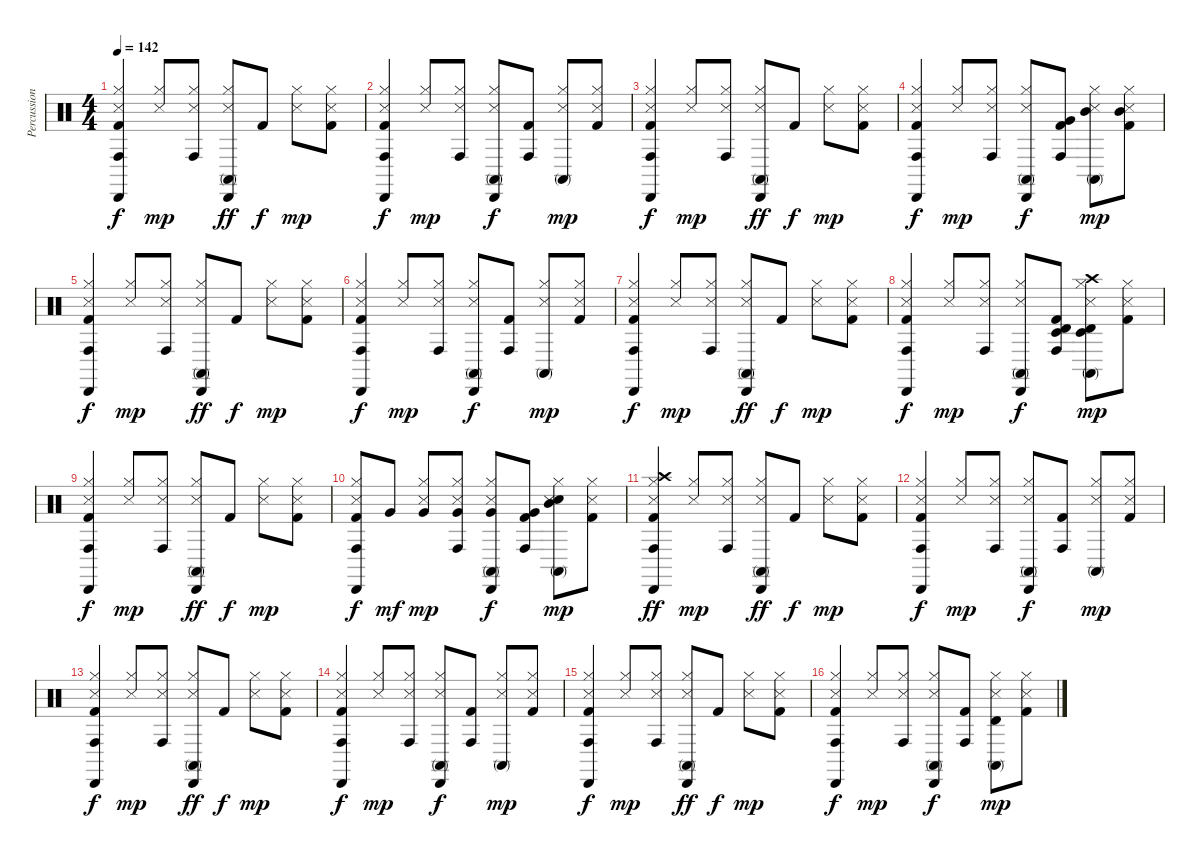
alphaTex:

\track ("Percussion Booster" "Percussion") {instrument percussion}
\staff {score}
\articulation defaults
\ts (4 4)
\tempo 142
\clef neutral
\ks c
("Conga high (hit)" "Cabasa (hit)" "Hi-Hat (closed)" "Snare (side stick) 3" "Kick (hit) 2").4{dy f} ("Hi-Hat (closed)" "Snare (side stick) 3").8{dy mp} ("Conga high (hit)" "Hi-Hat (closed)" "Snare (side stick) 3").8 ("Conga high (mute)" "Cabasa (hit)" "Hi-Hat (closed)" "Snare (side stick) 3").8{dy ff} "Kick (hit) 2".8{dy f} ("Hi-Hat (closed)" "Snare (side stick) 3").8{dy mp} ("Hi-Hat (closed)" "Snare (side stick) 3" "Kick (hit) 2").8 |
("Conga high (hit)" "Cabasa (hit)" "Hi-Hat (closed)" "Snare (side stick) 3" "Kick (hit) 2").4{dy f} ("Hi-Hat (closed)" "Snare (side stick) 3").8{dy mp} ("Conga high (hit)" "Hi-Hat (closed)" "Snare (side stick) 3").8 ("Conga high (mute)" "Cabasa (hit)" "Hi-Hat (closed)" "Snare (side stick) 3").8{dy f} ("Conga high (hit)" "Kick (hit) 2").8 ("Conga high (mute)" "Hi-Hat (closed)" "Snare (side stick) 3").8{dy mp} ("Hi-Hat (closed)" "Snare (side stick) 3" "Kick (hit) 2").8 |
("Conga high (hit)" "Cabasa (hit)" "Hi-Hat (closed)" "Snare (side stick) 3" "Kick (hit) 2").4{dy f} ("Hi-Hat (closed)" "Snare (side stick) 3").8{dy mp} ("Conga high (hit)" "Hi-Hat (closed)" "Snare (side stick) 3").8 ("Conga high (mute)" "Cabasa (hit)" "Hi-Hat (closed)" "Snare (side stick) 3").8{dy ff} "Kick (hit) 2".8{dy f} ("Hi-Hat (closed)" "Snare (side stick) 3").8{dy mp} ("Hi-Hat (closed)" "Snare (side stick) 3" "Kick (hit) 2").8 |
("Conga high (hit)" "Cabasa (hit)" "Hi-Hat (closed)" "Snare (side stick) 3" "Kick (hit) 2").4{dy f} ("Hi-Hat (closed)" "Snare (side stick) 3").8{dy mp} ("Conga high (hit)" "Hi-Hat (closed)" "Snare (side stick) 3").8 ("Conga high (mute)" "Cabasa (hit)" "Hi-Hat (closed)" "Snare (side stick) 3").8{dy f} ("Conga high (hit)" "Very Low Tom (hit)" "Kick (hit) 2").8 ("Conga high (mute)" "Mid Tom (hit)" "Hi-Hat (closed)" "Snare (side stick) 3").8{dy mp} ("Mid Tom (hit)" "Hi-Hat (closed)" "Snare (side stick) 3" "Kick (hit) 2").8 |
("Conga high (hit)" "Cabasa (hit)" "Hi-Hat (closed)" "Snare (side stick) 3" "Kick (hit) 2").4{dy f} ("Hi-Hat (closed)" "Snare (side stick) 3").8{dy mp} ("Conga high (hit)" "Hi-Hat (closed)" "Snare (side stick) 3").8 ("Conga high (mute)" "Cabasa (hit)" "Hi-Hat (closed)" "Snare (side stick) 3").8{dy ff} "Kick (hit) 2".8{dy f} ("Hi-Hat (closed)" "Snare (side stick) 3").8{dy mp} ("Hi-Hat (closed)" "Snare (side stick) 3" "Kick (hit) 2").8 |
("Conga high (hit)" "Cabasa (hit)" "Hi-Hat (closed)" "Snare (side stick) 3" "Kick (hit) 2").4{dy f} ("Hi-Hat (closed)" "Snare (side stick) 3").8{dy mp} ("Conga high (hit)" "Hi-Hat (closed)" "Snare (side stick) 3").8 ("Conga high (mute)" "Cabasa (hit)" "Hi-Hat (closed)" "Snare (side stick) 3").8{dy f} ("Conga high (hit)" "Kick (hit) 2").8 ("Conga high (mute)" "Hi-Hat (closed)" "Snare (side stick) 3").8{dy mp} ("Hi-Hat (closed)" "Snare (side stick) 3" "Kick (hit) 2").8 |
("Conga high (hit)" "Cabasa (hit)" "Hi-Hat (closed)" "Snare (side stick) 3" "Kick (hit) 2").4{dy f} ("Hi-Hat (closed)" "Snare (side stick) 3").8{dy mp} ("Conga high (hit)" "Hi-Hat (closed)" "Snare (side stick) 3").8 ("Conga high (mute)" "Cabasa (hit)" "Hi-Hat (closed)" "Snare (side stick) 3").8{dy ff} "Kick (hit) 2".8{dy f} ("Hi-Hat (closed)" "Snare (side stick) 3").8{dy mp} ("Hi-Hat (closed)" "Snare (side stick) 3" "Kick (hit) 2").8 |
("Conga high (hit)" "Cabasa (hit)" "Hi-Hat (closed)" "Snare (side stick) 3" "Kick (hit) 2").4{dy f} ("Hi-Hat (closed)" "Snare (side stick) 3").8{dy mp} ("Conga high (hit)" "Hi-Hat (closed)" "Snare (side stick) 3").8 ("Conga high (mute)" "Cabasa (hit)" "Hi-Hat (closed)" "Snare (side stick) 3").8{dy f} ("Timbale low (hit)" "Timbale high (hit)" "Conga high (hit)" "Kick (hit) 2").8 ("Timbale low (hit)" "Timbale high (hit)" "Conga high (mute)" "Crash high (hit)" "Hi-Hat (closed)" "Snare (side stick) 3").8{dy mp} ("Hi-Hat (closed)" "Snare (side stick) 3" "Kick (hit) 2").8 |
("Conga high (hit)" "Cabasa (hit)" "Hi-Hat (closed)" "Snare (side stick) 3" "Kick (hit) 2").4{dy f} ("Hi-Hat (closed)" "Snare (side stick) 3").8{dy mp} ("Conga high (hit)" "Hi-Hat (closed)" "Snare (side stick) 3").8 ("Conga high (mute)" "Cabasa (hit)" "Hi-Hat (closed)" "Snare (side stick) 3").8{dy ff} "Kick (hit) 2".8{dy f} ("Hi-Hat (closed)" "Snare (side stick) 3").8{dy mp} ("Hi-Hat (closed)" "Snare (side stick) 3" "Kick (hit) 2").8 |
("Conga high (hit)" "Cabasa (hit)" "Hi-Hat (closed)" "Snare (side stick) 3" "Kick (hit) 2").8{dy f} "Very Low Tom (hit)".8{dy mf} ("Very Low Tom (hit)" "Hi-Hat (closed)" "Snare (side stick) 3").8{dy mp} ("Conga high (hit)" "Very Low Tom (hit)" "Hi-Hat (closed)" "Snare (side stick) 3").8 ("Conga high (mute)" "Cabasa (hit)" "Very Low Tom (hit)" "Hi-Hat (closed)" "Snare (side stick) 3").8{dy f} ("Conga high (hit)" "Very Low Tom (hit)" "Kick (hit) 2").8 ("Conga high (mute)" "Mid Tom (hit)" "Hi-Hat (closed)" "Snare (hit) 2" "Snare (side stick) 3").8{dy mp} ("Hi-Hat (closed)" "Snare (side stick) 3" "Kick (hit) 2").8 |
("Conga high (hit)" "Cabasa (hit)" "Crash high (hit)" "Hi-Hat (closed)" "Snare (side stick) 3" "Kick (hit) 2").4{dy ff} ("Hi-Hat (closed)" "Snare (side stick) 3").8{dy mp} ("Conga high (hit)" "Hi-Hat (closed)" "Snare (side stick) 3").8 ("Conga high (mute)" "Cabasa (hit)" "Hi-Hat (closed)" "Snare (side stick) 3").8{dy ff} "Kick (hit) 2".8{dy f} ("Hi-Hat (closed)" "Snare (side stick) 3").8{dy mp} ("Hi-Hat (closed)" "Snare (side stick) 3" "Kick (hit) 2").8 |
("Conga high (hit)" "Cabasa (hit)" "Hi-Hat (closed)" "Snare (side stick) 3" "Kick (hit) 2").4{dy f} ("Hi-Hat (closed)" "Snare (side stick) 3").8{dy mp} ("Conga high (hit)" "Hi-Hat (closed)" "Snare (side stick) 3").8 ("Conga high (mute)" "Cabasa (hit)" "Hi-Hat (closed)" "Snare (side stick) 3").8{dy f} ("Conga high (hit)" "Kick (hit) 2").8 ("Conga high (mute)" "Hi-Hat (closed)" "Snare (side stick) 3").8{dy mp} ("Hi-Hat (closed)" "Snare (side stick) 3" "Kick (hit) 2").8 |
("Conga high (hit)" "Cabasa (hit)" "Hi-Hat (closed)" "Snare (side stick) 3" "Kick (hit) 2").4{dy f} ("Hi-Hat (closed)" "Snare (side stick) 3").8{dy mp} ("Conga high (hit)" "Hi-Hat (closed)" "Snare (side stick) 3").8 ("Conga high (mute)" "Cabasa (hit)" "Hi-Hat (closed)" "Snare (side stick) 3").8{dy ff} "Kick (hit) 2".8{dy f} ("Hi-Hat (closed)" "Snare (side stick) 3").8{dy mp} ("Hi-Hat (closed)" "Snare (side stick) 3" "Kick (hit) 2").8 |
("Conga high (hit)" "Cabasa (hit)" "Hi-Hat (closed)" "Snare (side stick) 3" "Kick (hit) 2").4{dy f} ("Hi-Hat (closed)" "Snare (side stick) 3").8{dy mp} ("Conga high (hit)" "Hi-Hat (closed)" "Snare (side stick) 3").8 ("Conga high (mute)" "Cabasa (hit)" "Hi-Hat (closed)" "Snare (side stick) 3").8{dy f} ("Conga high (hit)" "Kick (hit) 2").8 ("Conga high (mute)" "Hi-Hat (closed)" "Snare (side stick) 3").8{dy mp} ("Hi-Hat (closed)" "Snare (side stick) 3" "Kick (hit) 2").8 |
("Conga high (hit)" "Cabasa (hit)" "Hi-Hat (closed)" "Snare (side stick) 3" "Kick (hit) 2").4{dy f} ("Hi-Hat (closed)" "Snare (side stick) 3").8{dy mp} ("Conga high (hit)" "Hi-Hat (closed)" "Snare (side stick) 3").8 ("Conga high (mute)" "Cabasa (hit)" "Hi-Hat (closed)" "Snare (side stick) 3").8{dy ff} "Kick (hit) 2".8{dy f} ("Hi-Hat (closed)" "Snare (side stick) 3").8{dy mp} ("Hi-Hat (closed)" "Snare (side stick) 3" "Kick (hit) 2").8 |
("Conga high (hit)" "Cabasa (hit)" "Hi-Hat (closed)" "Snare (side stick) 3" "Kick (hit) 2").4{dy f} ("Hi-Hat (closed)" "Snare (side stick) 3").8{dy mp} ("Conga high (hit)" "Hi-Hat (closed)" "Snare (side stick) 3").8 ("Conga high (mute)" "Cabasa (hit)" "Hi-Hat (closed)" "Snare (side stick) 3").8{dy f} ("Conga high (hit)" "Kick (hit) 2").8 ("Timbale high (hit)" "Conga high (mute)" "Hi-Hat (closed)" "Snare (side stick) 3").8{dy mp} ("Hi-Hat (closed)" "Snare (side stick) 3" "Kick (hit) 2").8
